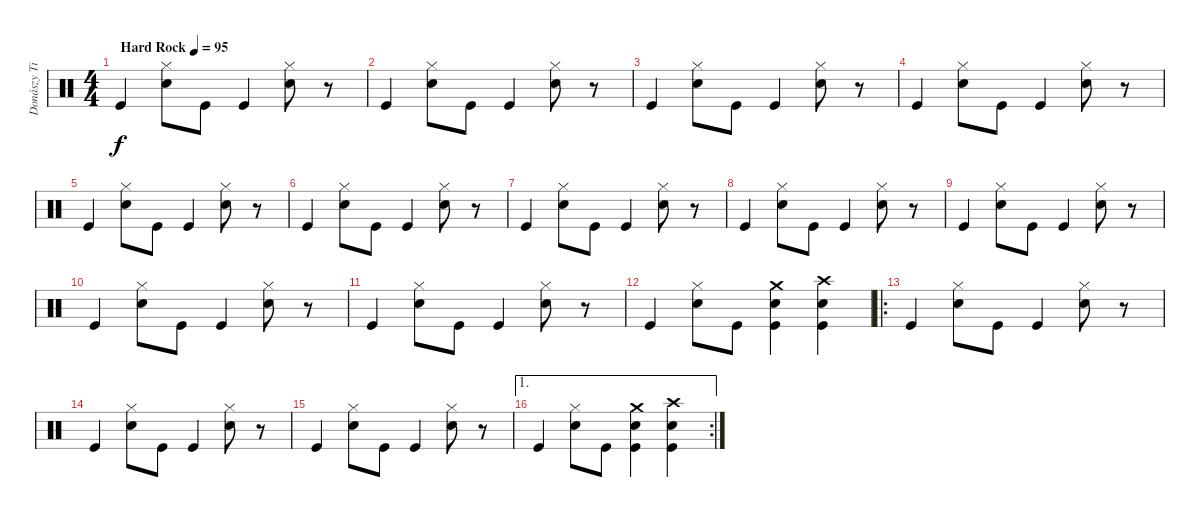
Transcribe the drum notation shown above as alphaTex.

\track ("Donászy Tibor" "Donászy Ti") {instrument percussion}
\staff {score}
\articulation defaults
\ts (4 4)
\tempo (95 "Hard Rock")
\clef neutral
\ks c "Kick (hit)".4{dy f}
("Hi-Hat (closed)" "Snare (hit) 2").8 "Kick (hit)".8 "Kick (hit)".4 ("Hi-Hat (closed)" "Snare (hit) 2").8 r.8 |
"Kick (hit)".4 ("Hi-Hat (closed)" "Snare (hit) 2").8 "Kick (hit)".8 "Kick (hit)".4 ("Hi-Hat (closed)" "Snare (hit) 2").8 r.8 |
"Kick (hit)".4 ("Hi-Hat (closed)" "Snare (hit) 2").8 "Kick (hit)".8 "Kick (hit)".4 ("Hi-Hat (closed)" "Snare (hit) 2").8 r.8 |
"Kick (hit)".4 ("Hi-Hat (closed)" "Snare (hit) 2").8 "Kick (hit)".8 "Kick (hit)".4 ("Hi-Hat (closed)" "Snare (hit) 2").8 r.8 |
"Kick (hit)".4 ("Hi-Hat (closed)" "Snare (hit) 2").8 "Kick (hit)".8 "Kick (hit)".4 ("Hi-Hat (closed)" "Snare (hit) 2").8 r.8 |
"Kick (hit)".4 ("Hi-Hat (closed)" "Snare (hit) 2").8 "Kick (hit)".8 "Kick (hit)".4 ("Hi-Hat (closed)" "Snare (hit) 2").8 r.8 |
"Kick (hit)".4 ("Hi-Hat (closed)" "Snare (hit) 2").8 "Kick (hit)".8 "Kick (hit)".4 ("Hi-Hat (closed)" "Snare (hit) 2").8 r.8 |
"Kick (hit)".4 ("Hi-Hat (closed)" "Snare (hit) 2").8 "Kick (hit)".8 "Kick (hit)".4 ("Hi-Hat (closed)" "Snare (hit) 2").8 r.8 |
"Kick (hit)".4 ("Hi-Hat (closed)" "Snare (hit) 2").8 "Kick (hit)".8 "Kick (hit)".4 ("Hi-Hat (closed)" "Snare (hit) 2").8 r.8 |
"Kick (hit)".4 ("Hi-Hat (closed)" "Snare (hit) 2").8 "Kick (hit)".8 "Kick (hit)".4 ("Hi-Hat (closed)" "Snare (hit) 2").8 r.8 |
"Kick (hit)".4 ("Hi-Hat (closed)" "Snare (hit) 2").8 "Kick (hit)".8 "Kick (hit)".4 ("Hi-Hat (closed)" "Snare (hit) 2").8 r.8 |
"Kick (hit)".4 ("Hi-Hat (closed)" "Snare (hit) 2").8 "Kick (hit)".8 ("Kick (hit)" "Snare (hit) 2" "Crash medium (hit)").4 ("Kick (hit)" "Snare (hit) 2" "Crash high (hit)").4 |
\ro "Kick (hit)".4
("Hi-Hat (closed)" "Snare (hit) 2").8 "Kick (hit)".8 "Kick (hit)".4 ("Hi-Hat (closed)" "Snare (hit) 2").8 r.8 |
"Kick (hit)".4 ("Hi-Hat (closed)" "Snare (hit) 2").8 "Kick (hit)".8 "Kick (hit)".4 ("Hi-Hat (closed)" "Snare (hit) 2").8 r.8 |
"Kick (hit)".4 ("Hi-Hat (closed)" "Snare (hit) 2").8 "Kick (hit)".8 "Kick (hit)".4 ("Hi-Hat (closed)" "Snare (hit) 2").8 r.8 |
\ae 1
\rc 2 "Kick (hit)".4
("Hi-Hat (closed)" "Snare (hit) 2").8 "Kick (hit)".8 ("Kick (hit)" "Snare (hit) 2" "Crash medium (hit)").4 ("Kick (hit)" "Snare (hit) 2" "Crash high (hit)").4
